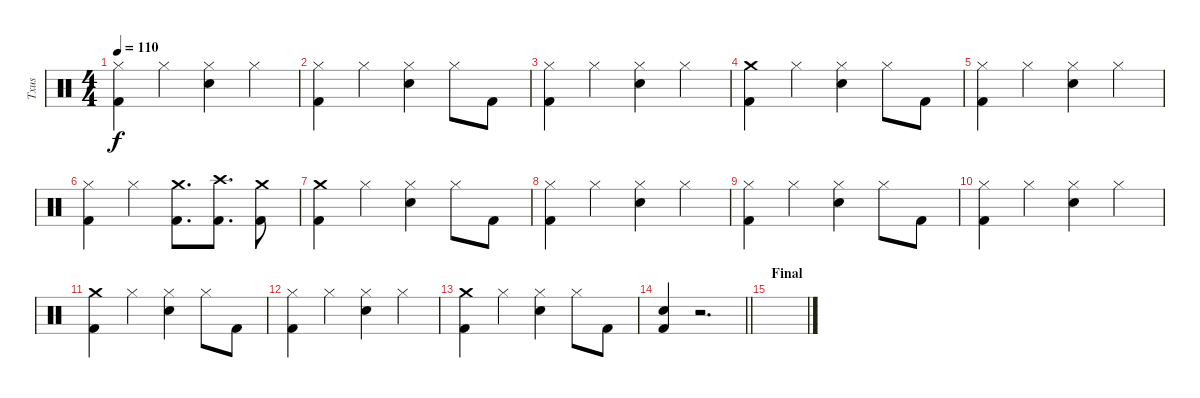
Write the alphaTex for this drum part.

\track ("Txus" "Txus") {instrument percussion}
\staff {score}
\articulation defaults
\ts (4 4)
\tempo 110
\clef neutral
\ks c
("Hi-Hat (closed)" "Kick (hit) 2").4{dy f} "Hi-Hat (closed)".4 ("Hi-Hat (closed)" "Electric Snare (hit)").4 "Hi-Hat (closed)".4 |
("Hi-Hat (closed)" "Kick (hit) 2").4 "Hi-Hat (closed)".4 ("Hi-Hat (closed)" "Electric Snare (hit)").4 "Hi-Hat (closed)".8 "Kick (hit) 2".8 |
("Hi-Hat (closed)" "Kick (hit) 2").4 "Hi-Hat (closed)".4 ("Hi-Hat (closed)" "Electric Snare (hit)").4 "Hi-Hat (closed)".4 |
("Crash medium (hit)" "Kick (hit) 2").4 "Hi-Hat (closed)".4 ("Hi-Hat (closed)" "Electric Snare (hit)").4 "Hi-Hat (closed)".8 "Kick (hit) 2".8 |
("Hi-Hat (closed)" "Kick (hit) 2").4 "Hi-Hat (closed)".4 ("Hi-Hat (closed)" "Electric Snare (hit)").4 "Hi-Hat (closed)".4 |
("Hi-Hat (closed)" "Kick (hit) 2").4 "Hi-Hat (closed)".4 ("Crash medium (hit)" "Kick (hit) 2").8{d} ("Crash high (hit)" "Kick (hit) 2").8{d} ("Crash medium (hit)" "Kick (hit) 2").8 |
("Crash medium (hit)" "Kick (hit) 2").4 "Hi-Hat (closed)".4 ("Hi-Hat (closed)" "Electric Snare (hit)").4 "Hi-Hat (closed)".8 "Kick (hit) 2".8 |
("Hi-Hat (closed)" "Kick (hit) 2").4 "Hi-Hat (closed)".4 ("Hi-Hat (closed)" "Electric Snare (hit)").4 "Hi-Hat (closed)".4 |
("Hi-Hat (closed)" "Kick (hit) 2").4 "Hi-Hat (closed)".4 ("Hi-Hat (closed)" "Electric Snare (hit)").4 "Hi-Hat (closed)".8 "Kick (hit) 2".8 |
("Hi-Hat (closed)" "Kick (hit) 2").4 "Hi-Hat (closed)".4 ("Hi-Hat (closed)" "Electric Snare (hit)").4 "Hi-Hat (closed)".4 |
("Crash medium (hit)" "Kick (hit) 2").4 "Hi-Hat (closed)".4 ("Hi-Hat (closed)" "Electric Snare (hit)").4 "Hi-Hat (closed)".8 "Kick (hit) 2".8 |
("Hi-Hat (closed)" "Kick (hit) 2").4 "Hi-Hat (closed)".4 ("Hi-Hat (closed)" "Electric Snare (hit)").4 "Hi-Hat (closed)".4 |
("Crash medium (hit)" "Kick (hit) 2").4 "Hi-Hat (closed)".4 ("Hi-Hat (closed)" "Electric Snare (hit)").4 "Hi-Hat (closed)".8 "Kick (hit) 2".8 |
\barLineRight lightlight
("Electric Snare (hit)" "Kick (hit) 2").4 r.2{d} |
\section ("" "Final")
